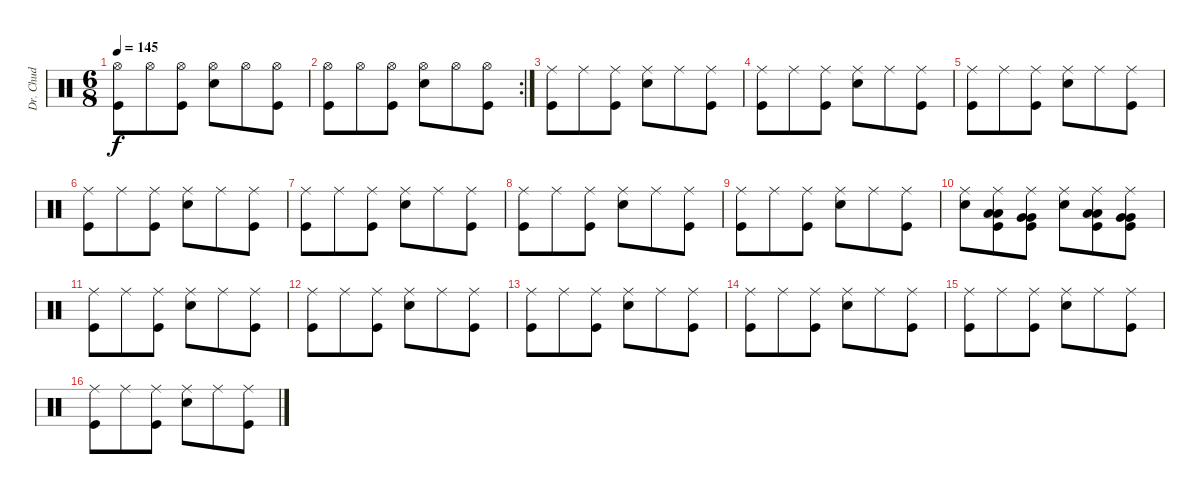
\track ("Dr. Chud" "Dr. Chud") {instrument percussion}
\staff {score}
\articulation defaults
\ts (6 8)
\tempo 145
\clef neutral
\ks c
("Hi-Hat (open)" "Kick (hit)").8{dy f} "Hi-Hat (open)".8 ("Hi-Hat (open)" "Kick (hit)").8 ("Hi-Hat (open)" "Snare (hit) 2").8 "Hi-Hat (open)".8 ("Hi-Hat (open)" "Kick (hit)").8 |
\rc 2
("Hi-Hat (open)" "Kick (hit)").8 "Hi-Hat (open)".8 ("Hi-Hat (open)" "Kick (hit)").8 ("Hi-Hat (open)" "Snare (hit) 2").8 "Hi-Hat (open)".8 ("Hi-Hat (open)" "Kick (hit)").8 |
("Ride (middle)" "Kick (hit)").8 "Ride (middle)".8 ("Ride (middle)" "Kick (hit)").8 ("Ride (middle)" "Snare (hit) 2").8 "Ride (middle)".8 ("Ride (middle)" "Kick (hit)").8 |
("Ride (middle)" "Kick (hit)").8 "Ride (middle)".8 ("Ride (middle)" "Kick (hit)").8 ("Ride (middle)" "Snare (hit) 2").8 "Ride (middle)".8 ("Ride (middle)" "Kick (hit)").8 |
("Ride (middle)" "Kick (hit)").8 "Ride (middle)".8 ("Ride (middle)" "Kick (hit)").8 ("Ride (middle)" "Snare (hit) 2").8 "Ride (middle)".8 ("Ride (middle)" "Kick (hit)").8 |
("Ride (middle)" "Kick (hit)").8 "Ride (middle)".8 ("Ride (middle)" "Kick (hit)").8 ("Ride (middle)" "Snare (hit) 2").8 "Ride (middle)".8 ("Ride (middle)" "Kick (hit)").8 |
("Ride (middle)" "Kick (hit)").8 "Ride (middle)".8 ("Ride (middle)" "Kick (hit)").8 ("Ride (middle)" "Snare (hit) 2").8 "Ride (middle)".8 ("Ride (middle)" "Kick (hit)").8 |
("Ride (middle)" "Kick (hit)").8 "Ride (middle)".8 ("Ride (middle)" "Kick (hit)").8 ("Ride (middle)" "Snare (hit) 2").8 "Ride (middle)".8 ("Ride (middle)" "Kick (hit)").8 |
("Ride (middle)" "Kick (hit)").8 "Ride (middle)".8 ("Ride (middle)" "Kick (hit)").8 ("Ride (middle)" "Snare (hit) 2").8 "Ride (middle)".8 ("Ride (middle)" "Kick (hit)").8 |
("Ride (middle)" "Snare (hit) 2").8 ("Ride (middle)" "Low Tom (hit)" "Low Tom (hit)" "Kick (hit)").8 ("Ride (middle)" "Very Low Tom (hit)" "Very Low Tom (hit)" "Kick (hit)").8 ("Ride (middle)" "Snare (hit) 2").8 ("Ride (middle)" "Low Tom (hit)" "Low Tom (hit)" "Kick (hit)").8 ("Ride (middle)" "Very Low Tom (hit)" "Very Low Tom (hit)" "Kick (hit)").8 |
("Ride (middle)" "Kick (hit)").8 "Ride (middle)".8 ("Ride (middle)" "Kick (hit)").8 ("Ride (middle)" "Snare (hit) 2").8 "Ride (middle)".8 ("Ride (middle)" "Kick (hit)").8 |
("Ride (middle)" "Kick (hit)").8 "Ride (middle)".8 ("Ride (middle)" "Kick (hit)").8 ("Ride (middle)" "Snare (hit) 2").8 "Ride (middle)".8 ("Ride (middle)" "Kick (hit)").8 |
("Ride (middle)" "Kick (hit)").8 "Ride (middle)".8 ("Ride (middle)" "Kick (hit)").8 ("Ride (middle)" "Snare (hit) 2").8 "Ride (middle)".8 ("Ride (middle)" "Kick (hit)").8 |
("Ride (middle)" "Kick (hit)").8 "Ride (middle)".8 ("Ride (middle)" "Kick (hit)").8 ("Ride (middle)" "Snare (hit) 2").8 "Ride (middle)".8 ("Ride (middle)" "Kick (hit)").8 |
("Ride (middle)" "Kick (hit)").8 "Ride (middle)".8 ("Ride (middle)" "Kick (hit)").8 ("Ride (middle)" "Snare (hit) 2").8 "Ride (middle)".8 ("Ride (middle)" "Kick (hit)").8 |
("Ride (middle)" "Kick (hit)").8 "Ride (middle)".8 ("Ride (middle)" "Kick (hit)").8 ("Ride (middle)" "Snare (hit) 2").8 "Ride (middle)".8 ("Ride (middle)" "Kick (hit)").8
